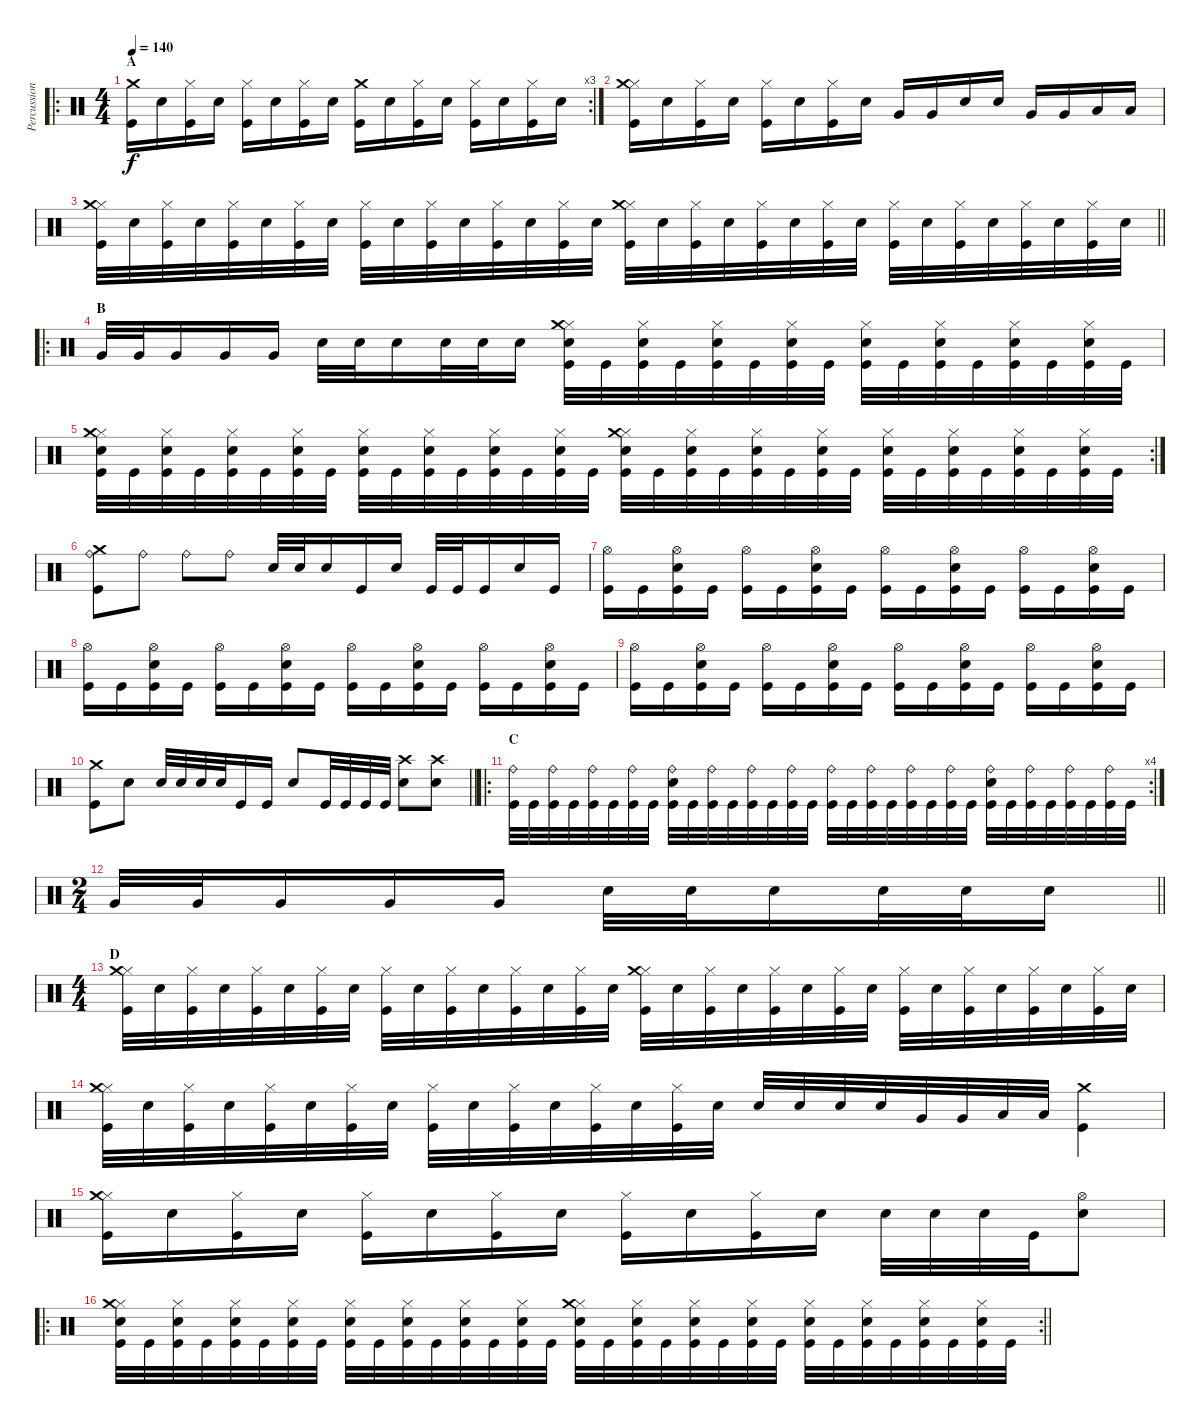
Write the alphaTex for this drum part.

\track ("Percussion" "Percussion") {instrument percussion}
\staff {score}
\articulation defaults
\ro
\rc 3
\ts (4 4)
\section ("" "A")
\tempo 140
\clef neutral
\ks c
("Kick (hit)" "Crash medium (hit)").16{dy f} "Snare (hit) 2".16 ("Kick (hit)" "Hi-Hat (closed)").16 "Snare (hit) 2".16 ("Kick (hit)" "Hi-Hat (closed)").16 "Snare (hit) 2".16 ("Kick (hit)" "Hi-Hat (closed)").16 "Snare (hit) 2".16 ("Kick (hit)" "Crash medium (hit)").16 "Snare (hit) 2".16 ("Kick (hit)" "Hi-Hat (closed)").16 "Snare (hit) 2".16 ("Kick (hit)" "Hi-Hat (closed)").16 "Snare (hit) 2".16 ("Kick (hit)" "Hi-Hat (closed)").16 "Snare (hit) 2".16 |
("Kick (hit)" "Hi-Hat (closed)" "Crash medium (hit)").16 "Snare (hit) 2".16 ("Kick (hit)" "Hi-Hat (closed)").16 "Snare (hit) 2".16 ("Kick (hit)" "Hi-Hat (closed)").16 "Snare (hit) 2".16 ("Kick (hit)" "Hi-Hat (closed)").16 "Snare (hit) 2".16 "Very Low Tom (hit)".16 "Very Low Tom (hit)".16 "Snare (hit) 2".16 "Snare (hit) 2".16 "Very Low Tom (hit)".16 "Very Low Tom (hit)".16 "Low Floor Tom (hit)".16 "Low Floor Tom (hit)".16 |
\barLineRight lightlight
("Kick (hit)" "Hi-Hat (closed)" "Crash medium (hit)").32 "Snare (hit) 2".32 ("Kick (hit)" "Hi-Hat (closed)").32 "Snare (hit) 2".32 ("Kick (hit)" "Hi-Hat (closed)").32 "Snare (hit) 2".32 ("Kick (hit)" "Hi-Hat (closed)").32 "Snare (hit) 2".32 ("Kick (hit)" "Hi-Hat (closed)").32 "Snare (hit) 2".32 ("Kick (hit)" "Hi-Hat (closed)").32 "Snare (hit) 2".32 ("Kick (hit)" "Hi-Hat (closed)").32 "Snare (hit) 2".32 ("Kick (hit)" "Hi-Hat (closed)").32 "Snare (hit) 2".32 ("Kick (hit)" "Hi-Hat (closed)" "Crash medium (hit)").32 "Snare (hit) 2".32 ("Kick (hit)" "Hi-Hat (closed)").32 "Snare (hit) 2".32 ("Kick (hit)" "Hi-Hat (closed)").32 "Snare (hit) 2".32 ("Kick (hit)" "Hi-Hat (closed)").32 "Snare (hit) 2".32 ("Kick (hit)" "Hi-Hat (closed)").32 "Snare (hit) 2".32 ("Kick (hit)" "Hi-Hat (closed)").32 "Snare (hit) 2".32 ("Kick (hit)" "Hi-Hat (closed)").32 "Snare (hit) 2".32 ("Kick (hit)" "Hi-Hat (closed)").32 "Snare (hit) 2".32 |
\ro
\section ("" "B")
"Very Low Tom (hit)".32 "Very Low Tom (hit)".32 "Very Low Tom (hit)".16 "Very Low Tom (hit)".16 "Very Low Tom (hit)".16 "Snare (hit) 2".32 "Snare (hit) 2".32 "Snare (hit) 2".16 "Snare (hit) 2".32 "Snare (hit) 2".32 "Snare (hit) 2".16 ("Kick (hit)" "Snare (hit) 2" "Hi-Hat (closed)" "Crash medium (hit)").32 "Kick (hit)".32 ("Kick (hit)" "Snare (hit) 2" "Hi-Hat (closed)").32 "Kick (hit)".32 ("Kick (hit)" "Snare (hit) 2" "Hi-Hat (closed)").32 "Kick (hit)".32 ("Kick (hit)" "Snare (hit) 2" "Hi-Hat (closed)").32 "Kick (hit)".32 ("Kick (hit)" "Snare (hit) 2" "Hi-Hat (closed)").32 "Kick (hit)".32 ("Kick (hit)" "Snare (hit) 2" "Hi-Hat (closed)").32 "Kick (hit)".32 ("Kick (hit)" "Snare (hit) 2" "Hi-Hat (closed)").32 "Kick (hit)".32 ("Kick (hit)" "Snare (hit) 2" "Hi-Hat (closed)").32 "Kick (hit)".32 |
\rc 2
("Kick (hit)" "Snare (hit) 2" "Hi-Hat (closed)" "Crash medium (hit)").32 "Kick (hit)".32 ("Kick (hit)" "Snare (hit) 2" "Hi-Hat (closed)").32 "Kick (hit)".32 ("Kick (hit)" "Snare (hit) 2" "Hi-Hat (closed)").32 "Kick (hit)".32 ("Kick (hit)" "Snare (hit) 2" "Hi-Hat (closed)").32 "Kick (hit)".32 ("Kick (hit)" "Snare (hit) 2" "Hi-Hat (closed)").32 "Kick (hit)".32 ("Kick (hit)" "Snare (hit) 2" "Hi-Hat (closed)").32 "Kick (hit)".32 ("Kick (hit)" "Snare (hit) 2" "Hi-Hat (closed)").32 "Kick (hit)".32 ("Kick (hit)" "Snare (hit) 2" "Hi-Hat (closed)").32 "Kick (hit)".32 ("Kick (hit)" "Snare (hit) 2" "Hi-Hat (closed)" "Crash medium (hit)").32 "Kick (hit)".32 ("Kick (hit)" "Snare (hit) 2" "Hi-Hat (closed)").32 "Kick (hit)".32 ("Kick (hit)" "Snare (hit) 2" "Hi-Hat (closed)").32 "Kick (hit)".32 ("Kick (hit)" "Snare (hit) 2" "Hi-Hat (closed)").32 "Kick (hit)".32 ("Kick (hit)" "Snare (hit) 2" "Hi-Hat (closed)").32 "Kick (hit)".32 ("Kick (hit)" "Snare (hit) 2" "Hi-Hat (closed)").32 "Kick (hit)".32 ("Kick (hit)" "Snare (hit) 2" "Hi-Hat (closed)").32 "Kick (hit)".32 ("Kick (hit)" "Snare (hit) 2" "Hi-Hat (closed)").32 "Kick (hit)".32 |
("Kick (hit)" "Ride (bell)" "Crash medium (hit)").8 "Ride (bell)".8 "Ride (bell)".8 "Ride (bell)".8 "Snare (hit) 2".32 "Snare (hit) 2".32 "Snare (hit) 2".16 "Kick (hit)".16 "Snare (hit) 2".16 "Kick (hit)".32 "Kick (hit)".32 "Kick (hit)".16 "Snare (hit) 2".16 "Kick (hit)".16 |
("Kick (hit)" "Hi-Hat (open)").16 "Kick (hit)".16 ("Kick (hit)" "Snare (hit) 2" "Hi-Hat (open)").16 "Kick (hit)".16 ("Kick (hit)" "Hi-Hat (open)").16 "Kick (hit)".16 ("Kick (hit)" "Snare (hit) 2" "Hi-Hat (open)").16 "Kick (hit)".16 ("Kick (hit)" "Hi-Hat (open)").16 "Kick (hit)".16 ("Kick (hit)" "Snare (hit) 2" "Hi-Hat (open)").16 "Kick (hit)".16 ("Kick (hit)" "Hi-Hat (open)").16 "Kick (hit)".16 ("Kick (hit)" "Snare (hit) 2" "Hi-Hat (open)").16 "Kick (hit)".16 |
("Kick (hit)" "Hi-Hat (open)").16 "Kick (hit)".16 ("Kick (hit)" "Snare (hit) 2" "Hi-Hat (open)").16 "Kick (hit)".16 ("Kick (hit)" "Hi-Hat (open)").16 "Kick (hit)".16 ("Kick (hit)" "Snare (hit) 2" "Hi-Hat (open)").16 "Kick (hit)".16 ("Kick (hit)" "Hi-Hat (open)").16 "Kick (hit)".16 ("Kick (hit)" "Snare (hit) 2" "Hi-Hat (open)").16 "Kick (hit)".16 ("Kick (hit)" "Hi-Hat (open)").16 "Kick (hit)".16 ("Kick (hit)" "Snare (hit) 2" "Hi-Hat (open)").16 "Kick (hit)".16 |
("Kick (hit)" "Hi-Hat (open)").16 "Kick (hit)".16 ("Kick (hit)" "Snare (hit) 2" "Hi-Hat (open)").16 "Kick (hit)".16 ("Kick (hit)" "Hi-Hat (open)").16 "Kick (hit)".16 ("Kick (hit)" "Snare (hit) 2" "Hi-Hat (open)").16 "Kick (hit)".16 ("Kick (hit)" "Hi-Hat (open)").16 "Kick (hit)".16 ("Kick (hit)" "Snare (hit) 2" "Hi-Hat (open)").16 "Kick (hit)".16 ("Kick (hit)" "Hi-Hat (open)").16 "Kick (hit)".16 ("Kick (hit)" "Snare (hit) 2" "Hi-Hat (open)").16 "Kick (hit)".16 |
\barLineRight lightlight
("Kick (hit)" "Crash medium (hit)").8 "Snare (hit) 2".8 "Snare (hit) 2".32 "Snare (hit) 2".32 "Snare (hit) 2".32 "Snare (hit) 2".32 "Kick (hit)".16 "Kick (hit)".16 "Snare (hit) 2".8 "Kick (hit)".32 "Kick (hit)".32 "Kick (hit)".32 "Kick (hit)".32 ("Snare (hit) 2" "Crash high (hit)").8 ("Snare (hit) 2" "Crash high (hit)").8 |
\ro
\rc 4
\section ("" "C")
("Kick (hit)" "Ride (bell)").32 "Kick (hit)".32 ("Kick (hit)" "Ride (bell)").32 "Kick (hit)".32 ("Kick (hit)" "Ride (bell)").32 "Kick (hit)".32 ("Kick (hit)" "Ride (bell)").32 "Kick (hit)".32 ("Kick (hit)" "Snare (hit) 2" "Ride (bell)").32 "Kick (hit)".32 ("Kick (hit)" "Ride (bell)").32 "Kick (hit)".32 ("Kick (hit)" "Ride (bell)").32 "Kick (hit)".32 ("Kick (hit)" "Ride (bell)").32 "Kick (hit)".32 ("Kick (hit)" "Ride (bell)").32 "Kick (hit)".32 ("Kick (hit)" "Ride (bell)").32 "Kick (hit)".32 ("Kick (hit)" "Ride (bell)").32 "Kick (hit)".32 ("Kick (hit)" "Ride (bell)").32 "Kick (hit)".32 ("Kick (hit)" "Snare (hit) 2" "Ride (bell)").32 "Kick (hit)".32 ("Kick (hit)" "Ride (bell)").32 "Kick (hit)".32 ("Kick (hit)" "Ride (bell)").32 "Kick (hit)".32 ("Kick (hit)" "Ride (bell)").32 "Kick (hit)".32 |
\ts (2 4)
\barLineRight lightlight "Very Low Tom (hit)".32 "Very Low Tom (hit)".32 "Very Low Tom (hit)".16 "Very Low Tom (hit)".16 "Very Low Tom (hit)".16 "Snare (hit) 2".32 "Snare (hit) 2".32 "Snare (hit) 2".16 "Snare (hit) 2".32 "Snare (hit) 2".32 "Snare (hit) 2".16
|
\ts (4 4)
\section ("" "D")
("Kick (hit)" "Hi-Hat (closed)" "Crash medium (hit)").32 "Snare (hit) 2".32 ("Kick (hit)" "Hi-Hat (closed)").32 "Snare (hit) 2".32 ("Kick (hit)" "Hi-Hat (closed)").32 "Snare (hit) 2".32 ("Kick (hit)" "Hi-Hat (closed)").32 "Snare (hit) 2".32 ("Kick (hit)" "Hi-Hat (closed)").32 "Snare (hit) 2".32 ("Kick (hit)" "Hi-Hat (closed)").32 "Snare (hit) 2".32 ("Kick (hit)" "Hi-Hat (closed)").32 "Snare (hit) 2".32 ("Kick (hit)" "Hi-Hat (closed)").32 "Snare (hit) 2".32 ("Kick (hit)" "Hi-Hat (closed)" "Crash medium (hit)").32 "Snare (hit) 2".32 ("Kick (hit)" "Hi-Hat (closed)").32 "Snare (hit) 2".32 ("Kick (hit)" "Hi-Hat (closed)").32 "Snare (hit) 2".32 ("Kick (hit)" "Hi-Hat (closed)").32 "Snare (hit) 2".32 ("Kick (hit)" "Hi-Hat (closed)").32 "Snare (hit) 2".32 ("Kick (hit)" "Hi-Hat (closed)").32 "Snare (hit) 2".32 ("Kick (hit)" "Hi-Hat (closed)").32 "Snare (hit) 2".32 ("Kick (hit)" "Hi-Hat (closed)").32 "Snare (hit) 2".32 |
("Kick (hit)" "Hi-Hat (closed)" "Crash medium (hit)").32 "Snare (hit) 2".32 ("Kick (hit)" "Hi-Hat (closed)").32 "Snare (hit) 2".32 ("Kick (hit)" "Hi-Hat (closed)").32 "Snare (hit) 2".32 ("Kick (hit)" "Hi-Hat (closed)").32 "Snare (hit) 2".32 ("Kick (hit)" "Hi-Hat (closed)").32 "Snare (hit) 2".32 ("Kick (hit)" "Hi-Hat (closed)").32 "Snare (hit) 2".32 ("Kick (hit)" "Hi-Hat (closed)").32 "Snare (hit) 2".32 ("Kick (hit)" "Hi-Hat (closed)").32 "Snare (hit) 2".32 "Snare (hit) 2".32 "Snare (hit) 2".32 "Snare (hit) 2".32 "Snare (hit) 2".32 "Very Low Tom (hit)".32 "Very Low Tom (hit)".32 "Low Floor Tom (hit)".32 "Low Floor Tom (hit)".32 ("Kick (hit)" "Crash medium (hit)").4 |
("Kick (hit)" "Hi-Hat (closed)" "Crash medium (hit)").16 "Snare (hit) 2".16 ("Kick (hit)" "Hi-Hat (closed)").16 "Snare (hit) 2".16 ("Kick (hit)" "Hi-Hat (closed)").16 "Snare (hit) 2".16 ("Kick (hit)" "Hi-Hat (closed)").16 "Snare (hit) 2".16 ("Kick (hit)" "Hi-Hat (closed)").16 "Snare (hit) 2".16 ("Kick (hit)" "Hi-Hat (closed)").16 "Snare (hit) 2".16 "Snare (hit) 2".32 "Snare (hit) 2".32 "Snare (hit) 2".32 "Kick (hit)".32 ("Snare (hit) 2" "Hi-Hat (open)").8 |
\ro
\rc 2
\barLineRight lightlight
("Kick (hit)" "Snare (hit) 2" "Hi-Hat (closed)" "Crash medium (hit)").32 "Kick (hit)".32 ("Kick (hit)" "Snare (hit) 2" "Hi-Hat (closed)").32 "Kick (hit)".32 ("Kick (hit)" "Snare (hit) 2" "Hi-Hat (closed)").32 "Kick (hit)".32 ("Kick (hit)" "Snare (hit) 2" "Hi-Hat (closed)").32 "Kick (hit)".32 ("Kick (hit)" "Snare (hit) 2" "Hi-Hat (closed)").32 "Kick (hit)".32 ("Kick (hit)" "Snare (hit) 2" "Hi-Hat (closed)").32 "Kick (hit)".32 ("Kick (hit)" "Snare (hit) 2" "Hi-Hat (closed)").32 "Kick (hit)".32 ("Kick (hit)" "Snare (hit) 2" "Hi-Hat (closed)").32 "Kick (hit)".32 ("Kick (hit)" "Snare (hit) 2" "Hi-Hat (closed)" "Crash medium (hit)").32 "Kick (hit)".32 ("Kick (hit)" "Snare (hit) 2" "Hi-Hat (closed)").32 "Kick (hit)".32 ("Kick (hit)" "Snare (hit) 2" "Hi-Hat (closed)").32 "Kick (hit)".32 ("Kick (hit)" "Snare (hit) 2" "Hi-Hat (closed)").32 "Kick (hit)".32 ("Kick (hit)" "Snare (hit) 2" "Hi-Hat (closed)").32 "Kick (hit)".32 ("Kick (hit)" "Snare (hit) 2" "Hi-Hat (closed)").32 "Kick (hit)".32 ("Kick (hit)" "Snare (hit) 2" "Hi-Hat (closed)").32 "Kick (hit)".32 ("Kick (hit)" "Snare (hit) 2" "Hi-Hat (closed)").32 "Kick (hit)".32
